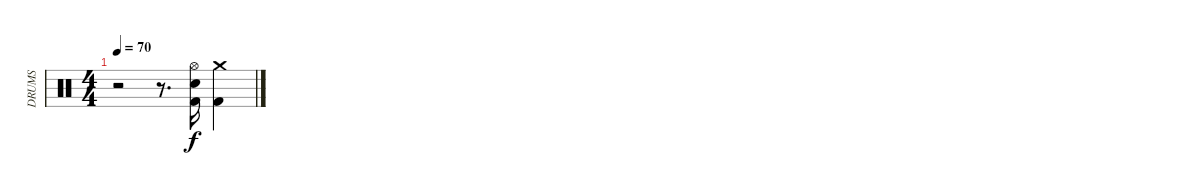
\track ("DRUMS" "DRUMS") {instrument percussion}
\staff {score}
\articulation defaults
\ts (4 4)
\tempo 70
\clef neutral
\ks c
r.2{dy f} r.8{d} ("Hi-Hat (open)" "Snare (hit) 2" "Kick (hit) 2").16 ("Crash medium (hit)" "Kick (hit) 2").4
